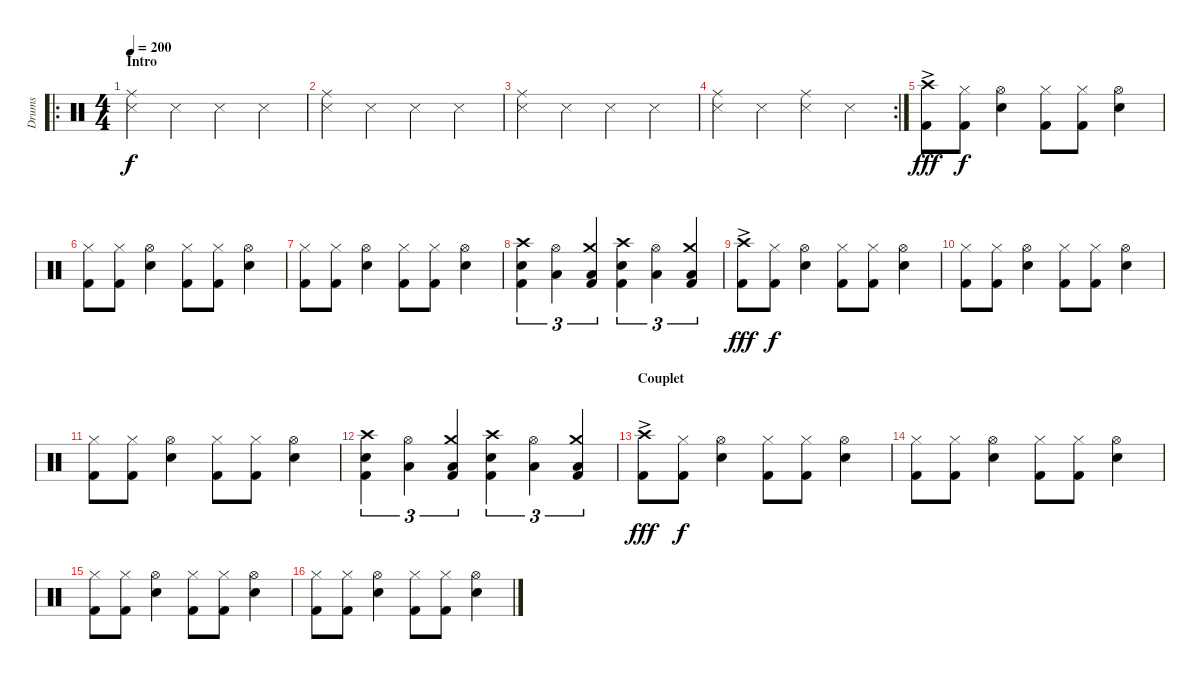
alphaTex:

\track ("Drums" "Drums") {instrument percussion}
\staff {score}
\articulation defaults
\ro
\ts (4 4)
\section ("" "Intro")
\tempo 200
\clef neutral
\ks c
("Ride (middle)" "Snare (side stick) 3").4{dy f} "Snare (side stick) 3".4 "Snare (side stick) 3".4 "Snare (side stick) 3".4 |
("Ride (middle)" "Snare (side stick) 3").4 "Snare (side stick) 3".4 "Snare (side stick) 3".4 "Snare (side stick) 3".4 |
("Ride (middle)" "Snare (side stick) 3").4 "Snare (side stick) 3".4 "Snare (side stick) 3".4 "Snare (side stick) 3".4 |
\rc 2
("Ride (middle)" "Snare (side stick) 3").4 "Snare (side stick) 3".4 ("Ride (middle)" "Snare (side stick) 3").4 "Snare (side stick) 3".4 |
("Crash high (hit)"{ac} "Kick (hit) 2").8{dy fff} ("Hi-Hat (closed)" "Kick (hit) 2").8{dy f} ("Hi-Hat (open)" "Snare (hit) 2").4 ("Hi-Hat (closed)" "Kick (hit) 2").8 ("Hi-Hat (closed)" "Kick (hit) 2").8 ("Hi-Hat (open)" "Snare (hit) 2").4 |
("Hi-Hat (closed)" "Kick (hit) 2").8 ("Hi-Hat (closed)" "Kick (hit) 2").8 ("Hi-Hat (open)" "Snare (hit) 2").4 ("Hi-Hat (closed)" "Kick (hit) 2").8 ("Hi-Hat (closed)" "Kick (hit) 2").8 ("Hi-Hat (open)" "Snare (hit) 2").4 |
("Hi-Hat (closed)" "Kick (hit) 2").8 ("Hi-Hat (closed)" "Kick (hit) 2").8 ("Hi-Hat (open)" "Snare (hit) 2").4 ("Hi-Hat (closed)" "Kick (hit) 2").8 ("Hi-Hat (closed)" "Kick (hit) 2").8 ("Hi-Hat (open)" "Snare (hit) 2").4 |
("Crash high (hit)" "Snare (hit) 2" "Kick (hit) 2").4{tu (3 2)} ("Hi-Hat (open)" "Low Tom (hit)").4{tu (3 2)} ("Crash medium (hit)" "Low Floor Tom (hit)" "Kick (hit) 2").4{tu (3 2)} ("Crash high (hit)" "Snare (hit) 2" "Kick (hit) 2").4{tu (3 2)} ("Hi-Hat (open)" "Low Tom (hit)").4{tu (3 2)} ("Crash medium (hit)" "Low Floor Tom (hit)" "Kick (hit) 2").4{tu (3 2)} |
("Crash high (hit)"{ac} "Kick (hit) 2").8{dy fff} ("Hi-Hat (closed)" "Kick (hit) 2").8{dy f} ("Hi-Hat (open)" "Snare (hit) 2").4 ("Hi-Hat (closed)" "Kick (hit) 2").8 ("Hi-Hat (closed)" "Kick (hit) 2").8 ("Hi-Hat (open)" "Snare (hit) 2").4 |
("Hi-Hat (closed)" "Kick (hit) 2").8 ("Hi-Hat (closed)" "Kick (hit) 2").8 ("Hi-Hat (open)" "Snare (hit) 2").4 ("Hi-Hat (closed)" "Kick (hit) 2").8 ("Hi-Hat (closed)" "Kick (hit) 2").8 ("Hi-Hat (open)" "Snare (hit) 2").4 |
("Hi-Hat (closed)" "Kick (hit) 2").8 ("Hi-Hat (closed)" "Kick (hit) 2").8 ("Hi-Hat (open)" "Snare (hit) 2").4 ("Hi-Hat (closed)" "Kick (hit) 2").8 ("Hi-Hat (closed)" "Kick (hit) 2").8 ("Hi-Hat (open)" "Snare (hit) 2").4 |
("Crash high (hit)" "Snare (hit) 2" "Kick (hit) 2").4{tu (3 2)} ("Hi-Hat (open)" "Low Tom (hit)").4{tu (3 2)} ("Crash medium (hit)" "Low Floor Tom (hit)" "Kick (hit) 2").4{tu (3 2)} ("Crash high (hit)" "Snare (hit) 2" "Kick (hit) 2").4{tu (3 2)} ("Hi-Hat (open)" "Low Tom (hit)").4{tu (3 2)} ("Crash medium (hit)" "Low Floor Tom (hit)" "Kick (hit) 2").4{tu (3 2)} |
\section ("" "Couplet")
("Crash high (hit)"{ac} "Kick (hit) 2").8{dy fff} ("Hi-Hat (closed)" "Kick (hit) 2").8{dy f} ("Hi-Hat (open)" "Snare (hit) 2").4 ("Hi-Hat (closed)" "Kick (hit) 2").8 ("Hi-Hat (closed)" "Kick (hit) 2").8 ("Hi-Hat (open)" "Snare (hit) 2").4 |
("Hi-Hat (closed)" "Kick (hit) 2").8 ("Hi-Hat (closed)" "Kick (hit) 2").8 ("Hi-Hat (open)" "Snare (hit) 2").4 ("Hi-Hat (closed)" "Kick (hit) 2").8 ("Hi-Hat (closed)" "Kick (hit) 2").8 ("Hi-Hat (open)" "Snare (hit) 2").4 |
("Hi-Hat (closed)" "Kick (hit) 2").8 ("Hi-Hat (closed)" "Kick (hit) 2").8 ("Hi-Hat (open)" "Snare (hit) 2").4 ("Hi-Hat (closed)" "Kick (hit) 2").8 ("Hi-Hat (closed)" "Kick (hit) 2").8 ("Hi-Hat (open)" "Snare (hit) 2").4 |
("Hi-Hat (closed)" "Kick (hit) 2").8 ("Hi-Hat (closed)" "Kick (hit) 2").8 ("Hi-Hat (open)" "Snare (hit) 2").4 ("Hi-Hat (closed)" "Kick (hit) 2").8 ("Hi-Hat (closed)" "Kick (hit) 2").8 ("Hi-Hat (open)" "Snare (hit) 2").4
